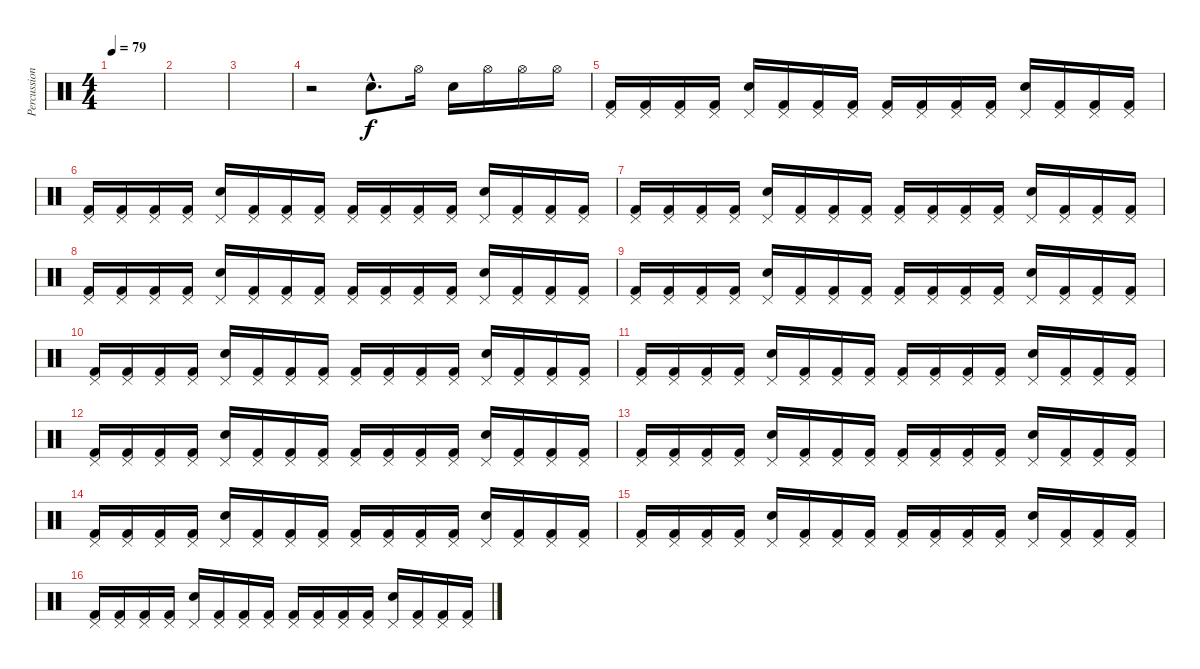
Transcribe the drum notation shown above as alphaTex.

\track ("Percussion" "Percussion") {instrument percussion}
\staff {score}
\articulation defaults
\ts (4 4)
\tempo 79
\clef neutral
\ks c
|
|
|
r.2 "Snare (hit)"{hac}.8{d} "Hi-Hat (open)".16 "Electric Snare (hit)".16 "Hi-Hat (open)".16 "Hi-Hat (open)".16 "Hi-Hat (open)".16 |
("Pedal Hi-Hat (hit)" "Kick (hit) 2").16 ("Pedal Hi-Hat (hit)" "Kick (hit) 2").16 ("Pedal Hi-Hat (hit)" "Kick (hit) 2").16 ("Pedal Hi-Hat (hit)" "Kick (hit) 2").16 ("Pedal Hi-Hat (hit)" "Electric Snare (hit)").16 ("Pedal Hi-Hat (hit)" "Kick (hit) 2").16 ("Pedal Hi-Hat (hit)" "Kick (hit) 2").16 ("Pedal Hi-Hat (hit)" "Kick (hit) 2").16 ("Pedal Hi-Hat (hit)" "Kick (hit) 2").16 ("Pedal Hi-Hat (hit)" "Kick (hit) 2").16 ("Pedal Hi-Hat (hit)" "Kick (hit) 2").16 ("Pedal Hi-Hat (hit)" "Kick (hit) 2").16 ("Pedal Hi-Hat (hit)" "Electric Snare (hit)").16 ("Pedal Hi-Hat (hit)" "Kick (hit) 2").16 ("Pedal Hi-Hat (hit)" "Kick (hit) 2").16 ("Pedal Hi-Hat (hit)" "Kick (hit) 2").16 |
("Pedal Hi-Hat (hit)" "Kick (hit) 2").16 ("Pedal Hi-Hat (hit)" "Kick (hit) 2").16 ("Pedal Hi-Hat (hit)" "Kick (hit) 2").16 ("Pedal Hi-Hat (hit)" "Kick (hit) 2").16 ("Pedal Hi-Hat (hit)" "Electric Snare (hit)").16 ("Pedal Hi-Hat (hit)" "Kick (hit) 2").16 ("Pedal Hi-Hat (hit)" "Kick (hit) 2").16 ("Pedal Hi-Hat (hit)" "Kick (hit) 2").16 ("Pedal Hi-Hat (hit)" "Kick (hit) 2").16 ("Pedal Hi-Hat (hit)" "Kick (hit) 2").16 ("Pedal Hi-Hat (hit)" "Kick (hit) 2").16 ("Pedal Hi-Hat (hit)" "Kick (hit) 2").16 ("Pedal Hi-Hat (hit)" "Electric Snare (hit)").16 ("Pedal Hi-Hat (hit)" "Kick (hit) 2").16 ("Pedal Hi-Hat (hit)" "Kick (hit) 2").16 ("Pedal Hi-Hat (hit)" "Kick (hit) 2").16 |
("Pedal Hi-Hat (hit)" "Kick (hit) 2").16 ("Pedal Hi-Hat (hit)" "Kick (hit) 2").16 ("Pedal Hi-Hat (hit)" "Kick (hit) 2").16 ("Pedal Hi-Hat (hit)" "Kick (hit) 2").16 ("Pedal Hi-Hat (hit)" "Electric Snare (hit)").16 ("Pedal Hi-Hat (hit)" "Kick (hit) 2").16 ("Pedal Hi-Hat (hit)" "Kick (hit) 2").16 ("Pedal Hi-Hat (hit)" "Kick (hit) 2").16 ("Pedal Hi-Hat (hit)" "Kick (hit) 2").16 ("Pedal Hi-Hat (hit)" "Kick (hit) 2").16 ("Pedal Hi-Hat (hit)" "Kick (hit) 2").16 ("Pedal Hi-Hat (hit)" "Kick (hit) 2").16 ("Pedal Hi-Hat (hit)" "Electric Snare (hit)").16 ("Pedal Hi-Hat (hit)" "Kick (hit) 2").16 ("Pedal Hi-Hat (hit)" "Kick (hit) 2").16 ("Pedal Hi-Hat (hit)" "Kick (hit) 2").16 |
("Pedal Hi-Hat (hit)" "Kick (hit) 2").16 ("Pedal Hi-Hat (hit)" "Kick (hit) 2").16 ("Pedal Hi-Hat (hit)" "Kick (hit) 2").16 ("Pedal Hi-Hat (hit)" "Kick (hit) 2").16 ("Pedal Hi-Hat (hit)" "Electric Snare (hit)").16 ("Pedal Hi-Hat (hit)" "Kick (hit) 2").16 ("Pedal Hi-Hat (hit)" "Kick (hit) 2").16 ("Pedal Hi-Hat (hit)" "Kick (hit) 2").16 ("Pedal Hi-Hat (hit)" "Kick (hit) 2").16 ("Pedal Hi-Hat (hit)" "Kick (hit) 2").16 ("Pedal Hi-Hat (hit)" "Kick (hit) 2").16 ("Pedal Hi-Hat (hit)" "Kick (hit) 2").16 ("Pedal Hi-Hat (hit)" "Electric Snare (hit)").16 ("Pedal Hi-Hat (hit)" "Kick (hit) 2").16 ("Pedal Hi-Hat (hit)" "Kick (hit) 2").16 ("Pedal Hi-Hat (hit)" "Kick (hit) 2").16 |
("Pedal Hi-Hat (hit)" "Kick (hit) 2").16 ("Pedal Hi-Hat (hit)" "Kick (hit) 2").16 ("Pedal Hi-Hat (hit)" "Kick (hit) 2").16 ("Pedal Hi-Hat (hit)" "Kick (hit) 2").16 ("Pedal Hi-Hat (hit)" "Electric Snare (hit)").16 ("Pedal Hi-Hat (hit)" "Kick (hit) 2").16 ("Pedal Hi-Hat (hit)" "Kick (hit) 2").16 ("Pedal Hi-Hat (hit)" "Kick (hit) 2").16 ("Pedal Hi-Hat (hit)" "Kick (hit) 2").16 ("Pedal Hi-Hat (hit)" "Kick (hit) 2").16 ("Pedal Hi-Hat (hit)" "Kick (hit) 2").16 ("Pedal Hi-Hat (hit)" "Kick (hit) 2").16 ("Pedal Hi-Hat (hit)" "Electric Snare (hit)").16 ("Pedal Hi-Hat (hit)" "Kick (hit) 2").16 ("Pedal Hi-Hat (hit)" "Kick (hit) 2").16 ("Pedal Hi-Hat (hit)" "Kick (hit) 2").16 |
("Pedal Hi-Hat (hit)" "Kick (hit) 2").16 ("Pedal Hi-Hat (hit)" "Kick (hit) 2").16 ("Pedal Hi-Hat (hit)" "Kick (hit) 2").16 ("Pedal Hi-Hat (hit)" "Kick (hit) 2").16 ("Pedal Hi-Hat (hit)" "Electric Snare (hit)").16 ("Pedal Hi-Hat (hit)" "Kick (hit) 2").16 ("Pedal Hi-Hat (hit)" "Kick (hit) 2").16 ("Pedal Hi-Hat (hit)" "Kick (hit) 2").16 ("Pedal Hi-Hat (hit)" "Kick (hit) 2").16 ("Pedal Hi-Hat (hit)" "Kick (hit) 2").16 ("Pedal Hi-Hat (hit)" "Kick (hit) 2").16 ("Pedal Hi-Hat (hit)" "Kick (hit) 2").16 ("Pedal Hi-Hat (hit)" "Electric Snare (hit)").16 ("Pedal Hi-Hat (hit)" "Kick (hit) 2").16 ("Pedal Hi-Hat (hit)" "Kick (hit) 2").16 ("Pedal Hi-Hat (hit)" "Kick (hit) 2").16 |
("Pedal Hi-Hat (hit)" "Kick (hit) 2").16 ("Pedal Hi-Hat (hit)" "Kick (hit) 2").16 ("Pedal Hi-Hat (hit)" "Kick (hit) 2").16 ("Pedal Hi-Hat (hit)" "Kick (hit) 2").16 ("Pedal Hi-Hat (hit)" "Electric Snare (hit)").16 ("Pedal Hi-Hat (hit)" "Kick (hit) 2").16 ("Pedal Hi-Hat (hit)" "Kick (hit) 2").16 ("Pedal Hi-Hat (hit)" "Kick (hit) 2").16 ("Pedal Hi-Hat (hit)" "Kick (hit) 2").16 ("Pedal Hi-Hat (hit)" "Kick (hit) 2").16 ("Pedal Hi-Hat (hit)" "Kick (hit) 2").16 ("Pedal Hi-Hat (hit)" "Kick (hit) 2").16 ("Pedal Hi-Hat (hit)" "Electric Snare (hit)").16 ("Pedal Hi-Hat (hit)" "Kick (hit) 2").16 ("Pedal Hi-Hat (hit)" "Kick (hit) 2").16 ("Pedal Hi-Hat (hit)" "Kick (hit) 2").16 |
("Pedal Hi-Hat (hit)" "Kick (hit) 2").16 ("Pedal Hi-Hat (hit)" "Kick (hit) 2").16 ("Pedal Hi-Hat (hit)" "Kick (hit) 2").16 ("Pedal Hi-Hat (hit)" "Kick (hit) 2").16 ("Pedal Hi-Hat (hit)" "Electric Snare (hit)").16 ("Pedal Hi-Hat (hit)" "Kick (hit) 2").16 ("Pedal Hi-Hat (hit)" "Kick (hit) 2").16 ("Pedal Hi-Hat (hit)" "Kick (hit) 2").16 ("Pedal Hi-Hat (hit)" "Kick (hit) 2").16 ("Pedal Hi-Hat (hit)" "Kick (hit) 2").16 ("Pedal Hi-Hat (hit)" "Kick (hit) 2").16 ("Pedal Hi-Hat (hit)" "Kick (hit) 2").16 ("Pedal Hi-Hat (hit)" "Electric Snare (hit)").16 ("Pedal Hi-Hat (hit)" "Kick (hit) 2").16 ("Pedal Hi-Hat (hit)" "Kick (hit) 2").16 ("Pedal Hi-Hat (hit)" "Kick (hit) 2").16 |
("Pedal Hi-Hat (hit)" "Kick (hit) 2").16 ("Pedal Hi-Hat (hit)" "Kick (hit) 2").16 ("Pedal Hi-Hat (hit)" "Kick (hit) 2").16 ("Pedal Hi-Hat (hit)" "Kick (hit) 2").16 ("Pedal Hi-Hat (hit)" "Electric Snare (hit)").16 ("Pedal Hi-Hat (hit)" "Kick (hit) 2").16 ("Pedal Hi-Hat (hit)" "Kick (hit) 2").16 ("Pedal Hi-Hat (hit)" "Kick (hit) 2").16 ("Pedal Hi-Hat (hit)" "Kick (hit) 2").16 ("Pedal Hi-Hat (hit)" "Kick (hit) 2").16 ("Pedal Hi-Hat (hit)" "Kick (hit) 2").16 ("Pedal Hi-Hat (hit)" "Kick (hit) 2").16 ("Pedal Hi-Hat (hit)" "Electric Snare (hit)").16 ("Pedal Hi-Hat (hit)" "Kick (hit) 2").16 ("Pedal Hi-Hat (hit)" "Kick (hit) 2").16 ("Pedal Hi-Hat (hit)" "Kick (hit) 2").16 |
("Pedal Hi-Hat (hit)" "Kick (hit) 2").16 ("Pedal Hi-Hat (hit)" "Kick (hit) 2").16 ("Pedal Hi-Hat (hit)" "Kick (hit) 2").16 ("Pedal Hi-Hat (hit)" "Kick (hit) 2").16 ("Pedal Hi-Hat (hit)" "Electric Snare (hit)").16 ("Pedal Hi-Hat (hit)" "Kick (hit) 2").16 ("Pedal Hi-Hat (hit)" "Kick (hit) 2").16 ("Pedal Hi-Hat (hit)" "Kick (hit) 2").16 ("Pedal Hi-Hat (hit)" "Kick (hit) 2").16 ("Pedal Hi-Hat (hit)" "Kick (hit) 2").16 ("Pedal Hi-Hat (hit)" "Kick (hit) 2").16 ("Pedal Hi-Hat (hit)" "Kick (hit) 2").16 ("Pedal Hi-Hat (hit)" "Electric Snare (hit)").16 ("Pedal Hi-Hat (hit)" "Kick (hit) 2").16 ("Pedal Hi-Hat (hit)" "Kick (hit) 2").16 ("Pedal Hi-Hat (hit)" "Kick (hit) 2").16 |
("Pedal Hi-Hat (hit)" "Kick (hit) 2").16 ("Pedal Hi-Hat (hit)" "Kick (hit) 2").16 ("Pedal Hi-Hat (hit)" "Kick (hit) 2").16 ("Pedal Hi-Hat (hit)" "Kick (hit) 2").16 ("Pedal Hi-Hat (hit)" "Electric Snare (hit)").16 ("Pedal Hi-Hat (hit)" "Kick (hit) 2").16 ("Pedal Hi-Hat (hit)" "Kick (hit) 2").16 ("Pedal Hi-Hat (hit)" "Kick (hit) 2").16 ("Pedal Hi-Hat (hit)" "Kick (hit) 2").16 ("Pedal Hi-Hat (hit)" "Kick (hit) 2").16 ("Pedal Hi-Hat (hit)" "Kick (hit) 2").16 ("Pedal Hi-Hat (hit)" "Kick (hit) 2").16 ("Pedal Hi-Hat (hit)" "Electric Snare (hit)").16 ("Pedal Hi-Hat (hit)" "Kick (hit) 2").16 ("Pedal Hi-Hat (hit)" "Kick (hit) 2").16 ("Pedal Hi-Hat (hit)" "Kick (hit) 2").16 |
("Pedal Hi-Hat (hit)" "Kick (hit) 2").16 ("Pedal Hi-Hat (hit)" "Kick (hit) 2").16 ("Pedal Hi-Hat (hit)" "Kick (hit) 2").16 ("Pedal Hi-Hat (hit)" "Kick (hit) 2").16 ("Pedal Hi-Hat (hit)" "Electric Snare (hit)").16 ("Pedal Hi-Hat (hit)" "Kick (hit) 2").16 ("Pedal Hi-Hat (hit)" "Kick (hit) 2").16 ("Pedal Hi-Hat (hit)" "Kick (hit) 2").16 ("Pedal Hi-Hat (hit)" "Kick (hit) 2").16 ("Pedal Hi-Hat (hit)" "Kick (hit) 2").16 ("Pedal Hi-Hat (hit)" "Kick (hit) 2").16 ("Pedal Hi-Hat (hit)" "Kick (hit) 2").16 ("Pedal Hi-Hat (hit)" "Electric Snare (hit)").16 ("Pedal Hi-Hat (hit)" "Kick (hit) 2").16 ("Pedal Hi-Hat (hit)" "Kick (hit) 2").16 ("Pedal Hi-Hat (hit)" "Kick (hit) 2").16
